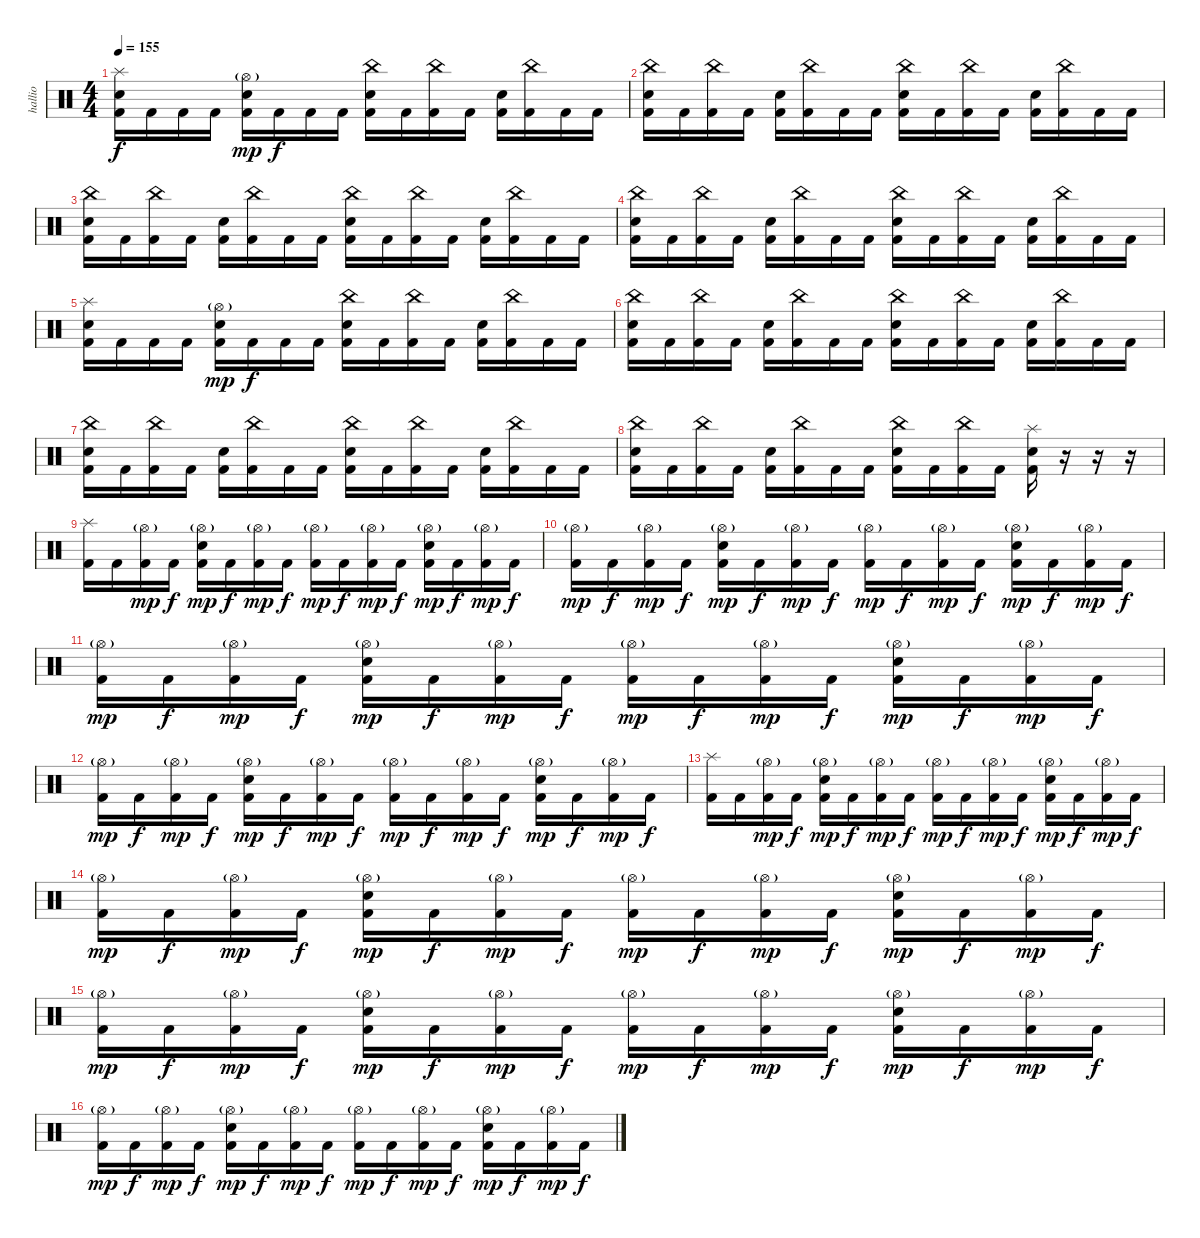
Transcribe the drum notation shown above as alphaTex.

\track ("hallio" "hallio") {instrument percussion}
\staff {score}
\articulation defaults
\ts (4 4)
\tempo 155
\clef neutral
\ks c
("Kick (hit) 2" "Snare (hit) 2" "Splash (hit)").16{dy f} "Kick (hit) 2".16 "Kick (hit) 2".16 "Kick (hit) 2".16 ("Kick (hit) 2" "Snare (hit) 2" "Hi-Hat (open)"{g}).16{dy mp} "Kick (hit) 2".16{dy f} "Kick (hit) 2".16 "Kick (hit) 2".16 ("Kick (hit) 2" "Snare (hit) 2" "China (hit)").16 "Kick (hit) 2".16 ("Kick (hit) 2" "China (hit)").16 "Kick (hit) 2".16 ("Kick (hit) 2" "Snare (hit) 2").16 ("Kick (hit) 2" "China (hit)").16 "Kick (hit) 2".16 "Kick (hit) 2".16 |
("Kick (hit) 2" "Snare (hit) 2" "China (hit)").16 "Kick (hit) 2".16 ("Kick (hit) 2" "China (hit)").16 "Kick (hit) 2".16 ("Kick (hit) 2" "Snare (hit) 2").16 ("Kick (hit) 2" "China (hit)").16 "Kick (hit) 2".16 "Kick (hit) 2".16 ("Kick (hit) 2" "Snare (hit) 2" "China (hit)").16 "Kick (hit) 2".16 ("Kick (hit) 2" "China (hit)").16 "Kick (hit) 2".16 ("Kick (hit) 2" "Snare (hit) 2").16 ("Kick (hit) 2" "China (hit)").16 "Kick (hit) 2".16 "Kick (hit) 2".16 |
("Kick (hit) 2" "Snare (hit) 2" "China (hit)").16 "Kick (hit) 2".16 ("Kick (hit) 2" "China (hit)").16 "Kick (hit) 2".16 ("Kick (hit) 2" "Snare (hit) 2").16 ("Kick (hit) 2" "China (hit)").16 "Kick (hit) 2".16 "Kick (hit) 2".16 ("Kick (hit) 2" "Snare (hit) 2" "China (hit)").16 "Kick (hit) 2".16 ("Kick (hit) 2" "China (hit)").16 "Kick (hit) 2".16 ("Kick (hit) 2" "Snare (hit) 2").16 ("Kick (hit) 2" "China (hit)").16 "Kick (hit) 2".16 "Kick (hit) 2".16 |
("Kick (hit) 2" "Snare (hit) 2" "China (hit)").16 "Kick (hit) 2".16 ("Kick (hit) 2" "China (hit)").16 "Kick (hit) 2".16 ("Kick (hit) 2" "Snare (hit) 2").16 ("Kick (hit) 2" "China (hit)").16 "Kick (hit) 2".16 "Kick (hit) 2".16 ("Kick (hit) 2" "Snare (hit) 2" "China (hit)").16 "Kick (hit) 2".16 ("Kick (hit) 2" "China (hit)").16 "Kick (hit) 2".16 ("Kick (hit) 2" "Snare (hit) 2").16 ("Kick (hit) 2" "China (hit)").16 "Kick (hit) 2".16 "Kick (hit) 2".16 |
("Kick (hit) 2" "Snare (hit) 2" "Splash (hit)").16 "Kick (hit) 2".16 "Kick (hit) 2".16 "Kick (hit) 2".16 ("Kick (hit) 2" "Snare (hit) 2" "Hi-Hat (open)"{g}).16{dy mp} "Kick (hit) 2".16{dy f} "Kick (hit) 2".16 "Kick (hit) 2".16 ("Kick (hit) 2" "Snare (hit) 2" "China (hit)").16 "Kick (hit) 2".16 ("Kick (hit) 2" "China (hit)").16 "Kick (hit) 2".16 ("Kick (hit) 2" "Snare (hit) 2").16 ("Kick (hit) 2" "China (hit)").16 "Kick (hit) 2".16 "Kick (hit) 2".16 |
("Kick (hit) 2" "Snare (hit) 2" "China (hit)").16 "Kick (hit) 2".16 ("Kick (hit) 2" "China (hit)").16 "Kick (hit) 2".16 ("Kick (hit) 2" "Snare (hit) 2").16 ("Kick (hit) 2" "China (hit)").16 "Kick (hit) 2".16 "Kick (hit) 2".16 ("Kick (hit) 2" "Snare (hit) 2" "China (hit)").16 "Kick (hit) 2".16 ("Kick (hit) 2" "China (hit)").16 "Kick (hit) 2".16 ("Kick (hit) 2" "Snare (hit) 2").16 ("Kick (hit) 2" "China (hit)").16 "Kick (hit) 2".16 "Kick (hit) 2".16 |
("Kick (hit) 2" "Snare (hit) 2" "China (hit)").16 "Kick (hit) 2".16 ("Kick (hit) 2" "China (hit)").16 "Kick (hit) 2".16 ("Kick (hit) 2" "Snare (hit) 2").16 ("Kick (hit) 2" "China (hit)").16 "Kick (hit) 2".16 "Kick (hit) 2".16 ("Kick (hit) 2" "Snare (hit) 2" "China (hit)").16 "Kick (hit) 2".16 ("Kick (hit) 2" "China (hit)").16 "Kick (hit) 2".16 ("Kick (hit) 2" "Snare (hit) 2").16 ("Kick (hit) 2" "China (hit)").16 "Kick (hit) 2".16 "Kick (hit) 2".16 |
("Kick (hit) 2" "Snare (hit) 2" "China (hit)").16 "Kick (hit) 2".16 ("Kick (hit) 2" "China (hit)").16 "Kick (hit) 2".16 ("Kick (hit) 2" "Snare (hit) 2").16 ("Kick (hit) 2" "China (hit)").16 "Kick (hit) 2".16 "Kick (hit) 2".16 ("Kick (hit) 2" "Snare (hit) 2" "China (hit)").16 "Kick (hit) 2".16 ("Kick (hit) 2" "China (hit)").16 "Kick (hit) 2".16 ("Kick (hit) 2" "Snare (hit) 2" "Splash (hit)").16 r.16 r.16 r.16 |
("Kick (hit) 2" "Splash (hit)").16 "Kick (hit) 2".16 ("Kick (hit) 2" "Hi-Hat (open)"{g}).16{dy mp} "Kick (hit) 2".16{dy f} ("Kick (hit) 2" "Snare (hit) 2" "Hi-Hat (open)"{g}).16{dy mp} "Kick (hit) 2".16{dy f} ("Kick (hit) 2" "Hi-Hat (open)"{g}).16{dy mp} "Kick (hit) 2".16{dy f} ("Kick (hit) 2" "Hi-Hat (open)"{g}).16{dy mp} "Kick (hit) 2".16{dy f} ("Kick (hit) 2" "Hi-Hat (open)"{g}).16{dy mp} "Kick (hit) 2".16{dy f} ("Kick (hit) 2" "Snare (hit) 2" "Hi-Hat (open)"{g}).16{dy mp} "Kick (hit) 2".16{dy f} ("Kick (hit) 2" "Hi-Hat (open)"{g}).16{dy mp} "Kick (hit) 2".16{dy f} |
("Kick (hit) 2" "Hi-Hat (open)"{g}).16{dy mp} "Kick (hit) 2".16{dy f} ("Kick (hit) 2" "Hi-Hat (open)"{g}).16{dy mp} "Kick (hit) 2".16{dy f} ("Kick (hit) 2" "Snare (hit) 2" "Hi-Hat (open)"{g}).16{dy mp} "Kick (hit) 2".16{dy f} ("Kick (hit) 2" "Hi-Hat (open)"{g}).16{dy mp} "Kick (hit) 2".16{dy f} ("Kick (hit) 2" "Hi-Hat (open)"{g}).16{dy mp} "Kick (hit) 2".16{dy f} ("Kick (hit) 2" "Hi-Hat (open)"{g}).16{dy mp} "Kick (hit) 2".16{dy f} ("Kick (hit) 2" "Snare (hit) 2" "Hi-Hat (open)"{g}).16{dy mp} "Kick (hit) 2".16{dy f} ("Kick (hit) 2" "Hi-Hat (open)"{g}).16{dy mp} "Kick (hit) 2".16{dy f} |
("Kick (hit) 2" "Hi-Hat (open)"{g}).16{dy mp} "Kick (hit) 2".16{dy f} ("Kick (hit) 2" "Hi-Hat (open)"{g}).16{dy mp} "Kick (hit) 2".16{dy f} ("Kick (hit) 2" "Snare (hit) 2" "Hi-Hat (open)"{g}).16{dy mp} "Kick (hit) 2".16{dy f} ("Kick (hit) 2" "Hi-Hat (open)"{g}).16{dy mp} "Kick (hit) 2".16{dy f} ("Kick (hit) 2" "Hi-Hat (open)"{g}).16{dy mp} "Kick (hit) 2".16{dy f} ("Kick (hit) 2" "Hi-Hat (open)"{g}).16{dy mp} "Kick (hit) 2".16{dy f} ("Kick (hit) 2" "Snare (hit) 2" "Hi-Hat (open)"{g}).16{dy mp} "Kick (hit) 2".16{dy f} ("Kick (hit) 2" "Hi-Hat (open)"{g}).16{dy mp} "Kick (hit) 2".16{dy f} |
("Kick (hit) 2" "Hi-Hat (open)"{g}).16{dy mp} "Kick (hit) 2".16{dy f} ("Kick (hit) 2" "Hi-Hat (open)"{g}).16{dy mp} "Kick (hit) 2".16{dy f} ("Kick (hit) 2" "Snare (hit) 2" "Hi-Hat (open)"{g}).16{dy mp} "Kick (hit) 2".16{dy f} ("Kick (hit) 2" "Hi-Hat (open)"{g}).16{dy mp} "Kick (hit) 2".16{dy f} ("Kick (hit) 2" "Hi-Hat (open)"{g}).16{dy mp} "Kick (hit) 2".16{dy f} ("Kick (hit) 2" "Hi-Hat (open)"{g}).16{dy mp} "Kick (hit) 2".16{dy f} ("Kick (hit) 2" "Snare (hit) 2" "Hi-Hat (open)"{g}).16{dy mp} "Kick (hit) 2".16{dy f} ("Kick (hit) 2" "Hi-Hat (open)"{g}).16{dy mp} "Kick (hit) 2".16{dy f} |
("Kick (hit) 2" "Splash (hit)").16 "Kick (hit) 2".16 ("Kick (hit) 2" "Hi-Hat (open)"{g}).16{dy mp} "Kick (hit) 2".16{dy f} ("Kick (hit) 2" "Snare (hit) 2" "Hi-Hat (open)"{g}).16{dy mp} "Kick (hit) 2".16{dy f} ("Kick (hit) 2" "Hi-Hat (open)"{g}).16{dy mp} "Kick (hit) 2".16{dy f} ("Kick (hit) 2" "Hi-Hat (open)"{g}).16{dy mp} "Kick (hit) 2".16{dy f} ("Kick (hit) 2" "Hi-Hat (open)"{g}).16{dy mp} "Kick (hit) 2".16{dy f} ("Kick (hit) 2" "Snare (hit) 2" "Hi-Hat (open)"{g}).16{dy mp} "Kick (hit) 2".16{dy f} ("Kick (hit) 2" "Hi-Hat (open)"{g}).16{dy mp} "Kick (hit) 2".16{dy f} |
("Kick (hit) 2" "Hi-Hat (open)"{g}).16{dy mp} "Kick (hit) 2".16{dy f} ("Kick (hit) 2" "Hi-Hat (open)"{g}).16{dy mp} "Kick (hit) 2".16{dy f} ("Kick (hit) 2" "Snare (hit) 2" "Hi-Hat (open)"{g}).16{dy mp} "Kick (hit) 2".16{dy f} ("Kick (hit) 2" "Hi-Hat (open)"{g}).16{dy mp} "Kick (hit) 2".16{dy f} ("Kick (hit) 2" "Hi-Hat (open)"{g}).16{dy mp} "Kick (hit) 2".16{dy f} ("Kick (hit) 2" "Hi-Hat (open)"{g}).16{dy mp} "Kick (hit) 2".16{dy f} ("Kick (hit) 2" "Snare (hit) 2" "Hi-Hat (open)"{g}).16{dy mp} "Kick (hit) 2".16{dy f} ("Kick (hit) 2" "Hi-Hat (open)"{g}).16{dy mp} "Kick (hit) 2".16{dy f} |
("Kick (hit) 2" "Hi-Hat (open)"{g}).16{dy mp} "Kick (hit) 2".16{dy f} ("Kick (hit) 2" "Hi-Hat (open)"{g}).16{dy mp} "Kick (hit) 2".16{dy f} ("Kick (hit) 2" "Snare (hit) 2" "Hi-Hat (open)"{g}).16{dy mp} "Kick (hit) 2".16{dy f} ("Kick (hit) 2" "Hi-Hat (open)"{g}).16{dy mp} "Kick (hit) 2".16{dy f} ("Kick (hit) 2" "Hi-Hat (open)"{g}).16{dy mp} "Kick (hit) 2".16{dy f} ("Kick (hit) 2" "Hi-Hat (open)"{g}).16{dy mp} "Kick (hit) 2".16{dy f} ("Kick (hit) 2" "Snare (hit) 2" "Hi-Hat (open)"{g}).16{dy mp} "Kick (hit) 2".16{dy f} ("Kick (hit) 2" "Hi-Hat (open)"{g}).16{dy mp} "Kick (hit) 2".16{dy f} |
("Kick (hit) 2" "Hi-Hat (open)"{g}).16{dy mp} "Kick (hit) 2".16{dy f} ("Kick (hit) 2" "Hi-Hat (open)"{g}).16{dy mp} "Kick (hit) 2".16{dy f} ("Kick (hit) 2" "Snare (hit) 2" "Hi-Hat (open)"{g}).16{dy mp} "Kick (hit) 2".16{dy f} ("Kick (hit) 2" "Hi-Hat (open)"{g}).16{dy mp} "Kick (hit) 2".16{dy f} ("Kick (hit) 2" "Hi-Hat (open)"{g}).16{dy mp} "Kick (hit) 2".16{dy f} ("Kick (hit) 2" "Hi-Hat (open)"{g}).16{dy mp} "Kick (hit) 2".16{dy f} ("Kick (hit) 2" "Snare (hit) 2" "Hi-Hat (open)"{g}).16{dy mp} "Kick (hit) 2".16{dy f} ("Kick (hit) 2" "Hi-Hat (open)"{g}).16{dy mp} "Kick (hit) 2".16{dy f}
